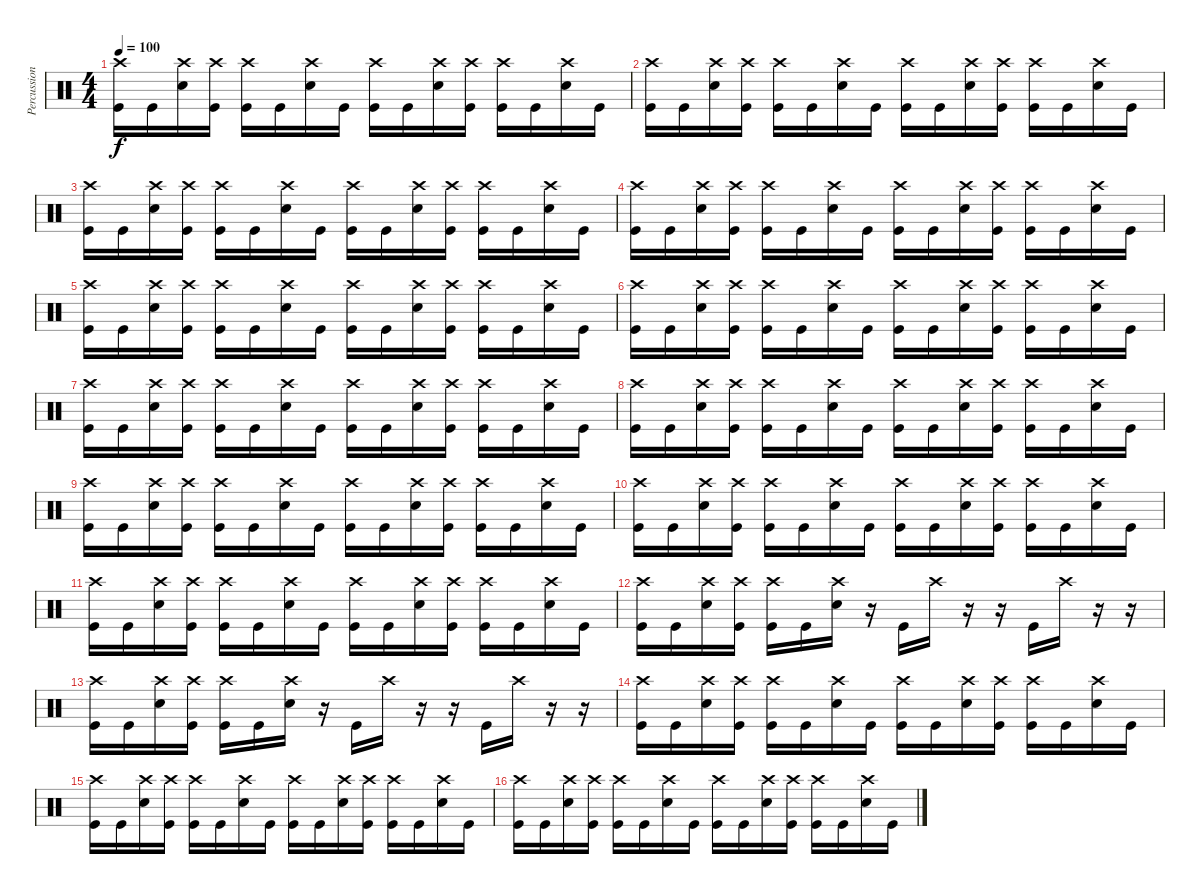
\track ("Percussion" "Percussion") {instrument percussion}
\staff {score}
\articulation defaults
\ts (4 4)
\tempo 100
\clef neutral
\ks c
("Crash high (hit)" "Kick (hit)").16{dy f} "Kick (hit)".16 ("Crash high (hit)" "Snare (hit) 2").16 ("Crash high (hit)" "Kick (hit)").16 ("Crash high (hit)" "Kick (hit)").16 "Kick (hit)".16 ("Crash high (hit)" "Snare (hit) 2").16 "Kick (hit)".16 ("Crash high (hit)" "Kick (hit)").16 "Kick (hit)".16 ("Crash high (hit)" "Snare (hit) 2").16 ("Crash high (hit)" "Kick (hit)").16 ("Crash high (hit)" "Kick (hit)").16 "Kick (hit)".16 ("Crash high (hit)" "Snare (hit) 2").16 "Kick (hit)".16 |
("Crash high (hit)" "Kick (hit)").16 "Kick (hit)".16 ("Crash high (hit)" "Snare (hit) 2").16 ("Crash high (hit)" "Kick (hit)").16 ("Crash high (hit)" "Kick (hit)").16 "Kick (hit)".16 ("Crash high (hit)" "Snare (hit) 2").16 "Kick (hit)".16 ("Crash high (hit)" "Kick (hit)").16 "Kick (hit)".16 ("Crash high (hit)" "Snare (hit) 2").16 ("Crash high (hit)" "Kick (hit)").16 ("Crash high (hit)" "Kick (hit)").16 "Kick (hit)".16 ("Crash high (hit)" "Snare (hit) 2").16 "Kick (hit)".16 |
("Crash high (hit)" "Kick (hit)").16 "Kick (hit)".16 ("Crash high (hit)" "Snare (hit) 2").16 ("Crash high (hit)" "Kick (hit)").16 ("Crash high (hit)" "Kick (hit)").16 "Kick (hit)".16 ("Crash high (hit)" "Snare (hit) 2").16 "Kick (hit)".16 ("Crash high (hit)" "Kick (hit)").16 "Kick (hit)".16 ("Crash high (hit)" "Snare (hit) 2").16 ("Crash high (hit)" "Kick (hit)").16 ("Crash high (hit)" "Kick (hit)").16 "Kick (hit)".16 ("Crash high (hit)" "Snare (hit) 2").16 "Kick (hit)".16 |
("Crash high (hit)" "Kick (hit)").16 "Kick (hit)".16 ("Crash high (hit)" "Snare (hit) 2").16 ("Crash high (hit)" "Kick (hit)").16 ("Crash high (hit)" "Kick (hit)").16 "Kick (hit)".16 ("Crash high (hit)" "Snare (hit) 2").16 "Kick (hit)".16 ("Crash high (hit)" "Kick (hit)").16 "Kick (hit)".16 ("Crash high (hit)" "Snare (hit) 2").16 ("Crash high (hit)" "Kick (hit)").16 ("Crash high (hit)" "Kick (hit)").16 "Kick (hit)".16 ("Crash high (hit)" "Snare (hit) 2").16 "Kick (hit)".16 |
("Crash high (hit)" "Kick (hit)").16 "Kick (hit)".16 ("Crash high (hit)" "Snare (hit) 2").16 ("Crash high (hit)" "Kick (hit)").16 ("Crash high (hit)" "Kick (hit)").16 "Kick (hit)".16 ("Crash high (hit)" "Snare (hit) 2").16 "Kick (hit)".16 ("Crash high (hit)" "Kick (hit)").16 "Kick (hit)".16 ("Crash high (hit)" "Snare (hit) 2").16 ("Crash high (hit)" "Kick (hit)").16 ("Crash high (hit)" "Kick (hit)").16 "Kick (hit)".16 ("Crash high (hit)" "Snare (hit) 2").16 "Kick (hit)".16 |
("Crash high (hit)" "Kick (hit)").16 "Kick (hit)".16 ("Crash high (hit)" "Snare (hit) 2").16 ("Crash high (hit)" "Kick (hit)").16 ("Crash high (hit)" "Kick (hit)").16 "Kick (hit)".16 ("Crash high (hit)" "Snare (hit) 2").16 "Kick (hit)".16 ("Crash high (hit)" "Kick (hit)").16 "Kick (hit)".16 ("Crash high (hit)" "Snare (hit) 2").16 ("Crash high (hit)" "Kick (hit)").16 ("Crash high (hit)" "Kick (hit)").16 "Kick (hit)".16 ("Crash high (hit)" "Snare (hit) 2").16 "Kick (hit)".16 |
("Crash high (hit)" "Kick (hit)").16 "Kick (hit)".16 ("Crash high (hit)" "Snare (hit) 2").16 ("Crash high (hit)" "Kick (hit)").16 ("Crash high (hit)" "Kick (hit)").16 "Kick (hit)".16 ("Crash high (hit)" "Snare (hit) 2").16 "Kick (hit)".16 ("Crash high (hit)" "Kick (hit)").16 "Kick (hit)".16 ("Crash high (hit)" "Snare (hit) 2").16 ("Crash high (hit)" "Kick (hit)").16 ("Crash high (hit)" "Kick (hit)").16 "Kick (hit)".16 ("Crash high (hit)" "Snare (hit) 2").16 "Kick (hit)".16 |
("Crash high (hit)" "Kick (hit)").16 "Kick (hit)".16 ("Crash high (hit)" "Snare (hit) 2").16 ("Crash high (hit)" "Kick (hit)").16 ("Crash high (hit)" "Kick (hit)").16 "Kick (hit)".16 ("Crash high (hit)" "Snare (hit) 2").16 "Kick (hit)".16 ("Crash high (hit)" "Kick (hit)").16 "Kick (hit)".16 ("Crash high (hit)" "Snare (hit) 2").16 ("Crash high (hit)" "Kick (hit)").16 ("Crash high (hit)" "Kick (hit)").16 "Kick (hit)".16 ("Crash high (hit)" "Snare (hit) 2").16 "Kick (hit)".16 |
("Crash high (hit)" "Kick (hit)").16 "Kick (hit)".16 ("Crash high (hit)" "Snare (hit) 2").16 ("Crash high (hit)" "Kick (hit)").16 ("Crash high (hit)" "Kick (hit)").16 "Kick (hit)".16 ("Crash high (hit)" "Snare (hit) 2").16 "Kick (hit)".16 ("Crash high (hit)" "Kick (hit)").16 "Kick (hit)".16 ("Crash high (hit)" "Snare (hit) 2").16 ("Crash high (hit)" "Kick (hit)").16 ("Crash high (hit)" "Kick (hit)").16 "Kick (hit)".16 ("Crash high (hit)" "Snare (hit) 2").16 "Kick (hit)".16 |
("Crash high (hit)" "Kick (hit)").16 "Kick (hit)".16 ("Crash high (hit)" "Snare (hit) 2").16 ("Crash high (hit)" "Kick (hit)").16 ("Crash high (hit)" "Kick (hit)").16 "Kick (hit)".16 ("Crash high (hit)" "Snare (hit) 2").16 "Kick (hit)".16 ("Crash high (hit)" "Kick (hit)").16 "Kick (hit)".16 ("Crash high (hit)" "Snare (hit) 2").16 ("Crash high (hit)" "Kick (hit)").16 ("Crash high (hit)" "Kick (hit)").16 "Kick (hit)".16 ("Crash high (hit)" "Snare (hit) 2").16 "Kick (hit)".16 |
("Crash high (hit)" "Kick (hit)").16 "Kick (hit)".16 ("Crash high (hit)" "Snare (hit) 2").16 ("Crash high (hit)" "Kick (hit)").16 ("Crash high (hit)" "Kick (hit)").16 "Kick (hit)".16 ("Crash high (hit)" "Snare (hit) 2").16 "Kick (hit)".16 ("Crash high (hit)" "Kick (hit)").16 "Kick (hit)".16 ("Crash high (hit)" "Snare (hit) 2").16 ("Crash high (hit)" "Kick (hit)").16 ("Crash high (hit)" "Kick (hit)").16 "Kick (hit)".16 ("Crash high (hit)" "Snare (hit) 2").16 "Kick (hit)".16 |
("Crash high (hit)" "Kick (hit)").16 "Kick (hit)".16 ("Crash high (hit)" "Snare (hit) 2").16 ("Crash high (hit)" "Kick (hit)").16 ("Crash high (hit)" "Kick (hit)").16 "Kick (hit)".16 ("Crash high (hit)" "Snare (hit) 2").16 r.16 "Kick (hit)".16 "Crash high (hit)".16 r.16 r.16 "Kick (hit)".16 "Crash high (hit)".16 r.16 r.16 |
("Crash high (hit)" "Kick (hit)").16 "Kick (hit)".16 ("Crash high (hit)" "Snare (hit) 2").16 ("Crash high (hit)" "Kick (hit)").16 ("Crash high (hit)" "Kick (hit)").16 "Kick (hit)".16 ("Crash high (hit)" "Snare (hit) 2").16 r.16 "Kick (hit)".16 "Crash high (hit)".16 r.16 r.16 "Kick (hit)".16 "Crash high (hit)".16 r.16 r.16 |
("Crash high (hit)" "Kick (hit)").16 "Kick (hit)".16 ("Crash high (hit)" "Snare (hit) 2").16 ("Crash high (hit)" "Kick (hit)").16 ("Crash high (hit)" "Kick (hit)").16 "Kick (hit)".16 ("Crash high (hit)" "Snare (hit) 2").16 "Kick (hit)".16 ("Crash high (hit)" "Kick (hit)").16 "Kick (hit)".16 ("Crash high (hit)" "Snare (hit) 2").16 ("Crash high (hit)" "Kick (hit)").16 ("Crash high (hit)" "Kick (hit)").16 "Kick (hit)".16 ("Crash high (hit)" "Snare (hit) 2").16 "Kick (hit)".16 |
("Crash high (hit)" "Kick (hit)").16 "Kick (hit)".16 ("Crash high (hit)" "Snare (hit) 2").16 ("Crash high (hit)" "Kick (hit)").16 ("Crash high (hit)" "Kick (hit)").16 "Kick (hit)".16 ("Crash high (hit)" "Snare (hit) 2").16 "Kick (hit)".16 ("Crash high (hit)" "Kick (hit)").16 "Kick (hit)".16 ("Crash high (hit)" "Snare (hit) 2").16 ("Crash high (hit)" "Kick (hit)").16 ("Crash high (hit)" "Kick (hit)").16 "Kick (hit)".16 ("Crash high (hit)" "Snare (hit) 2").16 "Kick (hit)".16 |
("Crash high (hit)" "Kick (hit)").16 "Kick (hit)".16 ("Crash high (hit)" "Snare (hit) 2").16 ("Crash high (hit)" "Kick (hit)").16 ("Crash high (hit)" "Kick (hit)").16 "Kick (hit)".16 ("Crash high (hit)" "Snare (hit) 2").16 "Kick (hit)".16 ("Crash high (hit)" "Kick (hit)").16 "Kick (hit)".16 ("Crash high (hit)" "Snare (hit) 2").16 ("Crash high (hit)" "Kick (hit)").16 ("Crash high (hit)" "Kick (hit)").16 "Kick (hit)".16 ("Crash high (hit)" "Snare (hit) 2").16 "Kick (hit)".16
